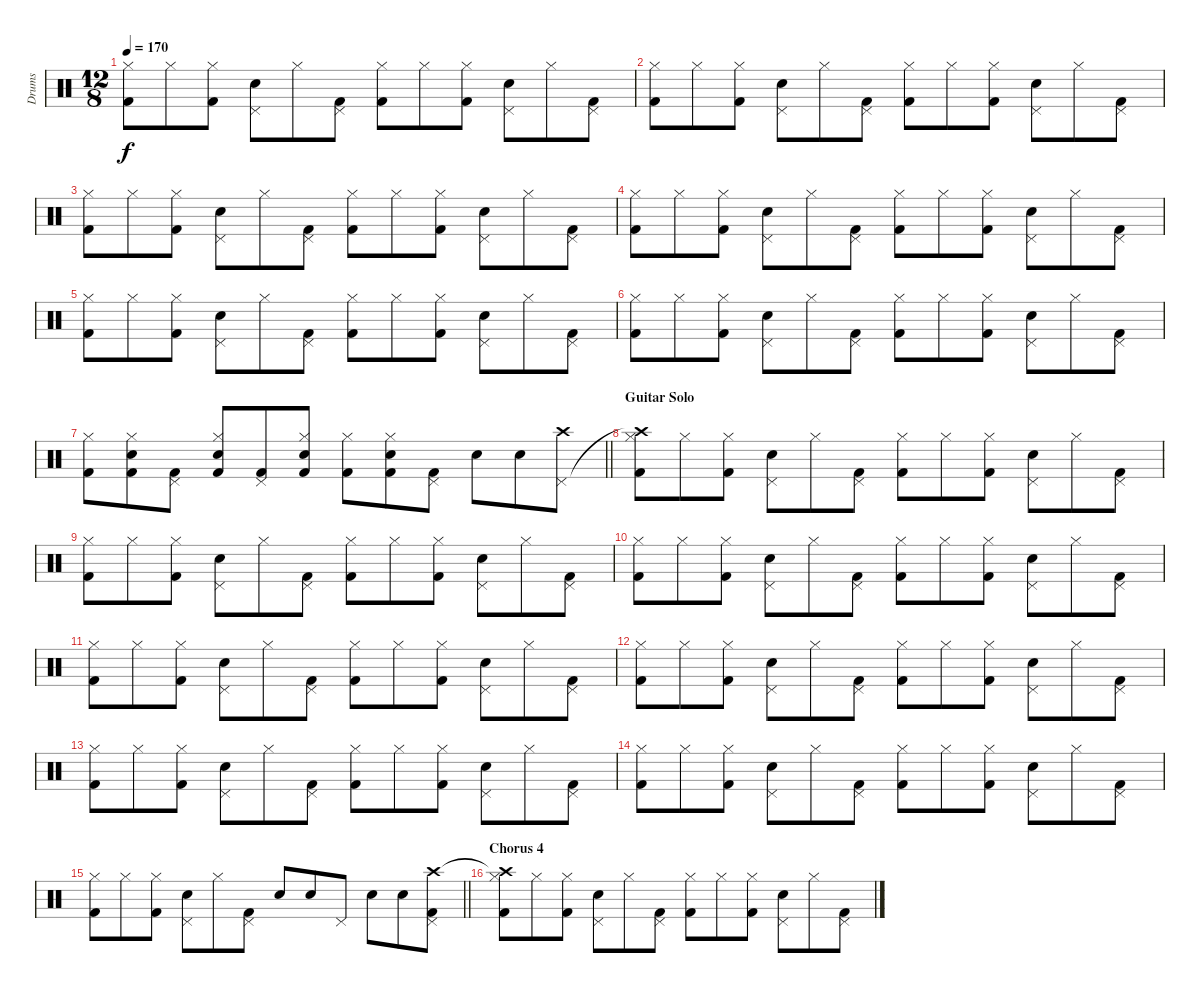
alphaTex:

\track ("Drums" "Drums") {instrument percussion}
\staff {score}
\articulation defaults
\ts (12 8)
\tempo 170
\clef neutral
\ks c
("Kick (hit) 2" "Hi-Hat (closed)").8{dy f} "Hi-Hat (closed)".8 ("Kick (hit) 2" "Hi-Hat (closed)").8 ("Snare (hit) 2" "Pedal Hi-Hat (hit)").8 "Hi-Hat (closed)".8 ("Kick (hit) 2" "Pedal Hi-Hat (hit)").8 ("Kick (hit) 2" "Hi-Hat (closed)").8 "Hi-Hat (closed)".8 ("Kick (hit) 2" "Hi-Hat (closed)").8 ("Snare (hit) 2" "Pedal Hi-Hat (hit)").8 "Hi-Hat (closed)".8 ("Kick (hit) 2" "Pedal Hi-Hat (hit)").8 |
("Kick (hit) 2" "Hi-Hat (closed)").8 "Hi-Hat (closed)".8 ("Kick (hit) 2" "Hi-Hat (closed)").8 ("Snare (hit) 2" "Pedal Hi-Hat (hit)").8 "Hi-Hat (closed)".8 ("Kick (hit) 2" "Pedal Hi-Hat (hit)").8 ("Kick (hit) 2" "Hi-Hat (closed)").8 "Hi-Hat (closed)".8 ("Kick (hit) 2" "Hi-Hat (closed)").8 ("Snare (hit) 2" "Pedal Hi-Hat (hit)").8 "Hi-Hat (closed)".8 ("Kick (hit) 2" "Pedal Hi-Hat (hit)").8 |
("Kick (hit) 2" "Hi-Hat (closed)").8 "Hi-Hat (closed)".8 ("Kick (hit) 2" "Hi-Hat (closed)").8 ("Snare (hit) 2" "Pedal Hi-Hat (hit)").8 "Hi-Hat (closed)".8 ("Kick (hit) 2" "Pedal Hi-Hat (hit)").8 ("Kick (hit) 2" "Hi-Hat (closed)").8 "Hi-Hat (closed)".8 ("Kick (hit) 2" "Hi-Hat (closed)").8 ("Snare (hit) 2" "Pedal Hi-Hat (hit)").8 "Hi-Hat (closed)".8 ("Kick (hit) 2" "Pedal Hi-Hat (hit)").8 |
("Kick (hit) 2" "Hi-Hat (closed)").8 "Hi-Hat (closed)".8 ("Kick (hit) 2" "Hi-Hat (closed)").8 ("Snare (hit) 2" "Pedal Hi-Hat (hit)").8 "Hi-Hat (closed)".8 ("Kick (hit) 2" "Pedal Hi-Hat (hit)").8 ("Kick (hit) 2" "Hi-Hat (closed)").8 "Hi-Hat (closed)".8 ("Kick (hit) 2" "Hi-Hat (closed)").8 ("Snare (hit) 2" "Pedal Hi-Hat (hit)").8 "Hi-Hat (closed)".8 ("Kick (hit) 2" "Pedal Hi-Hat (hit)").8 |
("Kick (hit) 2" "Hi-Hat (closed)").8 "Hi-Hat (closed)".8 ("Kick (hit) 2" "Hi-Hat (closed)").8 ("Snare (hit) 2" "Pedal Hi-Hat (hit)").8 "Hi-Hat (closed)".8 ("Kick (hit) 2" "Pedal Hi-Hat (hit)").8 ("Kick (hit) 2" "Hi-Hat (closed)").8 "Hi-Hat (closed)".8 ("Kick (hit) 2" "Hi-Hat (closed)").8 ("Snare (hit) 2" "Pedal Hi-Hat (hit)").8 "Hi-Hat (closed)".8 ("Kick (hit) 2" "Pedal Hi-Hat (hit)").8 |
("Kick (hit) 2" "Hi-Hat (closed)").8 "Hi-Hat (closed)".8 ("Kick (hit) 2" "Hi-Hat (closed)").8 ("Snare (hit) 2" "Pedal Hi-Hat (hit)").8 "Hi-Hat (closed)".8 ("Kick (hit) 2" "Pedal Hi-Hat (hit)").8 ("Kick (hit) 2" "Hi-Hat (closed)").8 "Hi-Hat (closed)".8 ("Kick (hit) 2" "Hi-Hat (closed)").8 ("Snare (hit) 2" "Pedal Hi-Hat (hit)").8 "Hi-Hat (closed)".8 ("Kick (hit) 2" "Pedal Hi-Hat (hit)").8 |
\barLineRight lightlight
("Kick (hit) 2" "Hi-Hat (closed)").8 ("Kick (hit) 2" "Snare (hit) 2" "Hi-Hat (closed)").8 ("Kick (hit) 2" "Pedal Hi-Hat (hit)").8 ("Kick (hit) 2" "Snare (hit) 2" "Hi-Hat (closed)").8 ("Kick (hit) 2" "Pedal Hi-Hat (hit)").8 ("Kick (hit) 2" "Snare (hit) 2" "Hi-Hat (closed)").8 ("Kick (hit) 2" "Hi-Hat (closed)").8 ("Kick (hit) 2" "Snare (hit) 2" "Hi-Hat (closed)").8 ("Kick (hit) 2" "Pedal Hi-Hat (hit)").8 "Snare (hit) 2".8 "Snare (hit) 2".8 ("Crash high (hit)" "Pedal Hi-Hat (hit)").8 |
\section ("" "Guitar Solo")
("Kick (hit) 2" "Crash high (hit)"{t} "Hi-Hat (closed)").8 "Hi-Hat (closed)".8 ("Kick (hit) 2" "Hi-Hat (closed)").8 ("Snare (hit) 2" "Pedal Hi-Hat (hit)").8 "Hi-Hat (closed)".8 ("Kick (hit) 2" "Pedal Hi-Hat (hit)").8 ("Kick (hit) 2" "Hi-Hat (closed)").8 "Hi-Hat (closed)".8 ("Kick (hit) 2" "Hi-Hat (closed)").8 ("Snare (hit) 2" "Pedal Hi-Hat (hit)").8 "Hi-Hat (closed)".8 ("Kick (hit) 2" "Pedal Hi-Hat (hit)").8 |
("Kick (hit) 2" "Hi-Hat (closed)").8 "Hi-Hat (closed)".8 ("Kick (hit) 2" "Hi-Hat (closed)").8 ("Snare (hit) 2" "Pedal Hi-Hat (hit)").8 "Hi-Hat (closed)".8 ("Kick (hit) 2" "Pedal Hi-Hat (hit)").8 ("Kick (hit) 2" "Hi-Hat (closed)").8 "Hi-Hat (closed)".8 ("Kick (hit) 2" "Hi-Hat (closed)").8 ("Snare (hit) 2" "Pedal Hi-Hat (hit)").8 "Hi-Hat (closed)".8 ("Kick (hit) 2" "Pedal Hi-Hat (hit)").8 |
("Kick (hit) 2" "Hi-Hat (closed)").8 "Hi-Hat (closed)".8 ("Kick (hit) 2" "Hi-Hat (closed)").8 ("Snare (hit) 2" "Pedal Hi-Hat (hit)").8 "Hi-Hat (closed)".8 ("Kick (hit) 2" "Pedal Hi-Hat (hit)").8 ("Kick (hit) 2" "Hi-Hat (closed)").8 "Hi-Hat (closed)".8 ("Kick (hit) 2" "Hi-Hat (closed)").8 ("Snare (hit) 2" "Pedal Hi-Hat (hit)").8 "Hi-Hat (closed)".8 ("Kick (hit) 2" "Pedal Hi-Hat (hit)").8 |
("Kick (hit) 2" "Hi-Hat (closed)").8 "Hi-Hat (closed)".8 ("Kick (hit) 2" "Hi-Hat (closed)").8 ("Snare (hit) 2" "Pedal Hi-Hat (hit)").8 "Hi-Hat (closed)".8 ("Kick (hit) 2" "Pedal Hi-Hat (hit)").8 ("Kick (hit) 2" "Hi-Hat (closed)").8 "Hi-Hat (closed)".8 ("Kick (hit) 2" "Hi-Hat (closed)").8 ("Snare (hit) 2" "Pedal Hi-Hat (hit)").8 "Hi-Hat (closed)".8 ("Kick (hit) 2" "Pedal Hi-Hat (hit)").8 |
("Kick (hit) 2" "Hi-Hat (closed)").8 "Hi-Hat (closed)".8 ("Kick (hit) 2" "Hi-Hat (closed)").8 ("Snare (hit) 2" "Pedal Hi-Hat (hit)").8 "Hi-Hat (closed)".8 ("Kick (hit) 2" "Pedal Hi-Hat (hit)").8 ("Kick (hit) 2" "Hi-Hat (closed)").8 "Hi-Hat (closed)".8 ("Kick (hit) 2" "Hi-Hat (closed)").8 ("Snare (hit) 2" "Pedal Hi-Hat (hit)").8 "Hi-Hat (closed)".8 ("Kick (hit) 2" "Pedal Hi-Hat (hit)").8 |
("Kick (hit) 2" "Hi-Hat (closed)").8 "Hi-Hat (closed)".8 ("Kick (hit) 2" "Hi-Hat (closed)").8 ("Snare (hit) 2" "Pedal Hi-Hat (hit)").8 "Hi-Hat (closed)".8 ("Kick (hit) 2" "Pedal Hi-Hat (hit)").8 ("Kick (hit) 2" "Hi-Hat (closed)").8 "Hi-Hat (closed)".8 ("Kick (hit) 2" "Hi-Hat (closed)").8 ("Snare (hit) 2" "Pedal Hi-Hat (hit)").8 "Hi-Hat (closed)".8 ("Kick (hit) 2" "Pedal Hi-Hat (hit)").8 |
("Kick (hit) 2" "Hi-Hat (closed)").8 "Hi-Hat (closed)".8 ("Kick (hit) 2" "Hi-Hat (closed)").8 ("Snare (hit) 2" "Pedal Hi-Hat (hit)").8 "Hi-Hat (closed)".8 ("Kick (hit) 2" "Pedal Hi-Hat (hit)").8 ("Kick (hit) 2" "Hi-Hat (closed)").8 "Hi-Hat (closed)".8 ("Kick (hit) 2" "Hi-Hat (closed)").8 ("Snare (hit) 2" "Pedal Hi-Hat (hit)").8 "Hi-Hat (closed)".8 ("Kick (hit) 2" "Pedal Hi-Hat (hit)").8 |
\barLineRight lightlight
("Kick (hit) 2" "Hi-Hat (closed)").8 "Hi-Hat (closed)".8 ("Kick (hit) 2" "Hi-Hat (closed)").8 ("Snare (hit) 2" "Pedal Hi-Hat (hit)").8 "Hi-Hat (closed)".8 ("Kick (hit) 2" "Pedal Hi-Hat (hit)").8 "Snare (hit) 2".8 "Snare (hit) 2".8 "Pedal Hi-Hat (hit)".8 "Snare (hit) 2".8 "Snare (hit) 2".8 ("Kick (hit) 2" "Crash high (hit)" "Pedal Hi-Hat (hit)").8 |
\section ("" "Chorus 4")
("Kick (hit) 2" "Crash high (hit)"{t} "Hi-Hat (closed)").8 "Hi-Hat (closed)".8 ("Kick (hit) 2" "Hi-Hat (closed)").8 ("Snare (hit) 2" "Pedal Hi-Hat (hit)").8 "Hi-Hat (closed)".8 ("Kick (hit) 2" "Pedal Hi-Hat (hit)").8 ("Kick (hit) 2" "Hi-Hat (closed)").8 "Hi-Hat (closed)".8 ("Kick (hit) 2" "Hi-Hat (closed)").8 ("Snare (hit) 2" "Pedal Hi-Hat (hit)").8 "Hi-Hat (closed)".8 ("Kick (hit) 2" "Pedal Hi-Hat (hit)").8
